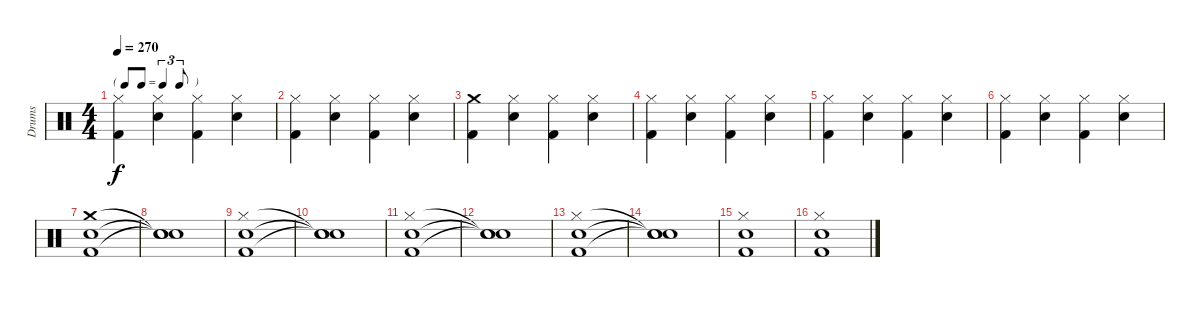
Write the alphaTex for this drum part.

\track ("Drums" "Drums") {instrument percussion}
\staff {score}
\articulation defaults
\ts (4 4)
\tf triplet8th
\tempo 270
\clef neutral
\ks c
("Hi-Hat (closed)" "Kick (hit) 2").4{dy f} ("Snare (hit) 2" "Hi-Hat (closed)").4 ("Hi-Hat (closed)" "Kick (hit) 2").4 ("Snare (hit) 2" "Hi-Hat (closed)").4 |
("Hi-Hat (closed)" "Kick (hit) 2").4 ("Snare (hit) 2" "Hi-Hat (closed)").4 ("Hi-Hat (closed)" "Kick (hit) 2").4 ("Snare (hit) 2" "Hi-Hat (closed)").4 |
("Crash medium (hit)" "Kick (hit) 2").4 ("Snare (hit) 2" "Hi-Hat (closed)").4 ("Hi-Hat (closed)" "Kick (hit) 2").4 ("Snare (hit) 2" "Hi-Hat (closed)").4 |
("Hi-Hat (closed)" "Kick (hit) 2").4 ("Snare (hit) 2" "Hi-Hat (closed)").4 ("Hi-Hat (closed)" "Kick (hit) 2").4 ("Snare (hit) 2" "Hi-Hat (closed)").4 |
("Hi-Hat (closed)" "Kick (hit) 2").4 ("Snare (hit) 2" "Hi-Hat (closed)").4 ("Hi-Hat (closed)" "Kick (hit) 2").4 ("Snare (hit) 2" "Hi-Hat (closed)").4 |
("Hi-Hat (closed)" "Kick (hit) 2").4 ("Snare (hit) 2" "Hi-Hat (closed)").4 ("Hi-Hat (closed)" "Kick (hit) 2").4 ("Snare (hit) 2" "Hi-Hat (closed)").4 |
("Snare (hit) 2" "Crash medium (hit)" "Kick (hit) 2").1 |
("Snare (hit)"{t} "Snare (hit)"{t} "Snare (hit)"{t}).1 |
("Snare (hit) 2" "Hi-Hat (closed)" "Kick (hit) 2").1 |
("Snare (hit)"{t} "Snare (hit)"{t} "Snare (hit)"{t}).1 |
("Snare (hit) 2" "Hi-Hat (closed)" "Kick (hit) 2").1 |
("Snare (hit)"{t} "Snare (hit)"{t} "Snare (hit)"{t}).1 |
("Snare (hit) 2" "Hi-Hat (closed)" "Kick (hit) 2").1 |
("Snare (hit)"{t} "Snare (hit)"{t} "Snare (hit)"{t}).1 |
("Snare (hit) 2" "Hi-Hat (closed)" "Kick (hit) 2").1 |
("Snare (hit) 2" "Hi-Hat (closed)" "Kick (hit) 2").1
